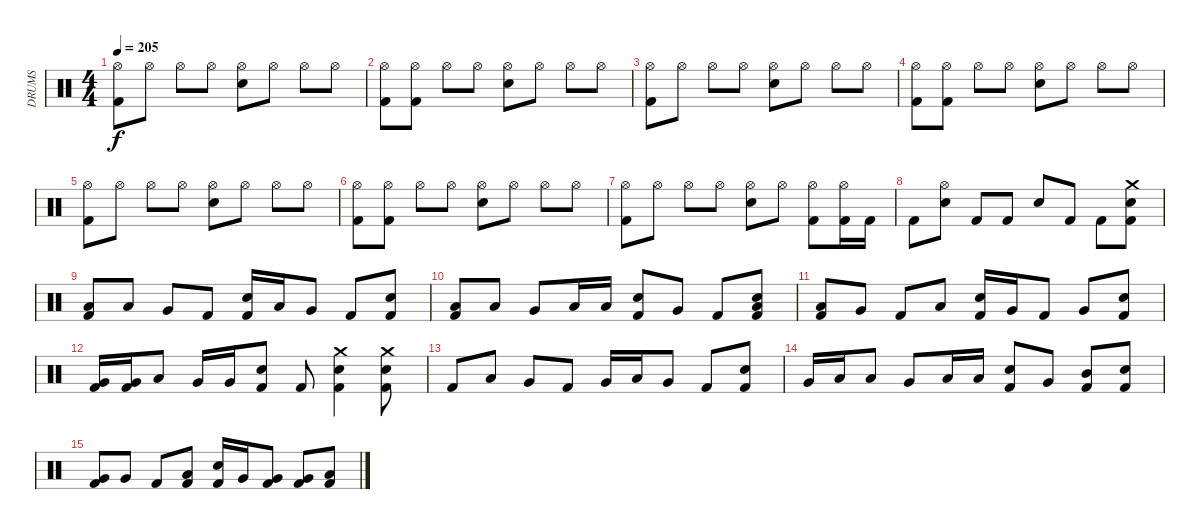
\track ("DRUMS" "DRUMS") {instrument percussion}
\staff {score}
\articulation defaults
\ts (4 4)
\tempo 205
\clef neutral
\ks c
("Hi-Hat (open)" "Kick (hit) 2").8{dy f} "Hi-Hat (open)".8 "Hi-Hat (open)".8 "Hi-Hat (open)".8 ("Hi-Hat (open)" "Snare (hit) 2").8 "Hi-Hat (open)".8 "Hi-Hat (open)".8 "Hi-Hat (open)".8 |
("Hi-Hat (open)" "Kick (hit) 2").8 ("Hi-Hat (open)" "Kick (hit) 2").8 "Hi-Hat (open)".8 "Hi-Hat (open)".8 ("Hi-Hat (open)" "Snare (hit) 2").8 "Hi-Hat (open)".8 "Hi-Hat (open)".8 "Hi-Hat (open)".8 |
("Hi-Hat (open)" "Kick (hit) 2").8 "Hi-Hat (open)".8 "Hi-Hat (open)".8 "Hi-Hat (open)".8 ("Hi-Hat (open)" "Snare (hit) 2").8 "Hi-Hat (open)".8 "Hi-Hat (open)".8 "Hi-Hat (open)".8 |
("Hi-Hat (open)" "Kick (hit) 2").8 ("Hi-Hat (open)" "Kick (hit) 2").8 "Hi-Hat (open)".8 "Hi-Hat (open)".8 ("Hi-Hat (open)" "Snare (hit) 2").8 "Hi-Hat (open)".8 "Hi-Hat (open)".8 "Hi-Hat (open)".8 |
("Hi-Hat (open)" "Kick (hit) 2").8 "Hi-Hat (open)".8 "Hi-Hat (open)".8 "Hi-Hat (open)".8 ("Hi-Hat (open)" "Snare (hit) 2").8 "Hi-Hat (open)".8 "Hi-Hat (open)".8 "Hi-Hat (open)".8 |
("Hi-Hat (open)" "Kick (hit) 2").8 ("Hi-Hat (open)" "Kick (hit) 2").8 "Hi-Hat (open)".8 "Hi-Hat (open)".8 ("Hi-Hat (open)" "Snare (hit) 2").8 "Hi-Hat (open)".8 "Hi-Hat (open)".8 "Hi-Hat (open)".8 |
("Hi-Hat (open)" "Kick (hit) 2").8 "Hi-Hat (open)".8 "Hi-Hat (open)".8 "Hi-Hat (open)".8 ("Hi-Hat (open)" "Snare (hit) 2").8 "Hi-Hat (open)".8 ("Hi-Hat (open)" "Kick (hit) 2").8 ("Hi-Hat (open)" "Kick (hit) 2").16 "Kick (hit) 2".16 |
"Kick (hit) 2".8 ("Hi-Hat (open)" "Snare (hit) 2").8 "Kick (hit) 2".8 "Kick (hit) 2".8 "Snare (hit) 2".8 "Kick (hit) 2".8 "Kick (hit) 2".8 ("Crash medium (hit)" "Snare (hit) 2" "Kick (hit) 2").8 |
("Low Tom (hit)" "Kick (hit) 2").8 "Low Floor Tom (hit)".8 "Very Low Tom (hit)".8 "Kick (hit) 2".8 ("Snare (hit) 2" "Kick (hit) 2").16 "Low Floor Tom (hit)".16 "Very Low Tom (hit)".8 "Kick (hit) 2".8 ("Snare (hit) 2" "Kick (hit) 2").8 |
("Low Tom (hit)" "Kick (hit) 2").8 "Low Floor Tom (hit)".8 "Very Low Tom (hit)".8 "Low Tom (hit)".16 "Low Tom (hit)".16 ("Snare (hit) 2" "Kick (hit) 2").8 "Very Low Tom (hit)".8 "Kick (hit) 2".8 ("Low Tom (hit)" "Snare (hit) 2" "Kick (hit) 2").8 |
("Low Tom (hit)" "Kick (hit) 2").8 "Very Low Tom (hit)".8 "Kick (hit) 2".8 "Low Floor Tom (hit)".8 ("Snare (hit) 2" "Kick (hit) 2").16 "Very Low Tom (hit)".16 "Kick (hit) 2".8 "Very Low Tom (hit)".8 ("Snare (hit) 2" "Kick (hit) 2").8 |
("Very Low Tom (hit)" "Kick (hit) 2").16 ("Very Low Tom (hit)" "Kick (hit) 2").16 "Low Floor Tom (hit)".8 "Very Low Tom (hit)".16 "Very Low Tom (hit)".16 ("Snare (hit) 2" "Kick (hit) 2").8 "Kick (hit) 2".8 ("Crash medium (hit)" "Snare (hit) 2" "Kick (hit) 2").4 ("Crash medium (hit)" "Snare (hit) 2" "Kick (hit) 2").8 |
"Kick (hit) 2".8 "Low Floor Tom (hit)".8 "Very Low Tom (hit)".8 "Kick (hit) 2".8 "Very Low Tom (hit)".16 "Low Floor Tom (hit)".16 "Very Low Tom (hit)".8 "Kick (hit) 2".8 ("Snare (hit) 2" "Kick (hit) 2").8 |
"Very Low Tom (hit)".16 "Low Tom (hit)".16 "Low Floor Tom (hit)".8 "Very Low Tom (hit)".8 "Low Tom (hit)".16 "Low Tom (hit)".16 ("Snare (hit) 2" "Kick (hit) 2").8 "Very Low Tom (hit)".8 ("Mid Tom (hit)" "Kick (hit) 2").8 ("Snare (hit) 2" "Kick (hit) 2").8 |
("Very Low Tom (hit)" "Kick (hit) 2").8 "Very Low Tom (hit)".8 "Kick (hit) 2".8 ("Kick (hit) 2" "Low Floor Tom (hit)").8 ("Snare (hit) 2" "Kick (hit) 2").16 "Very Low Tom (hit)".16 ("Very Low Tom (hit)" "Kick (hit) 2").8 ("Kick (hit) 2" "Very Low Tom (hit)").8 ("Kick (hit) 2" "Low Tom (hit)").8
